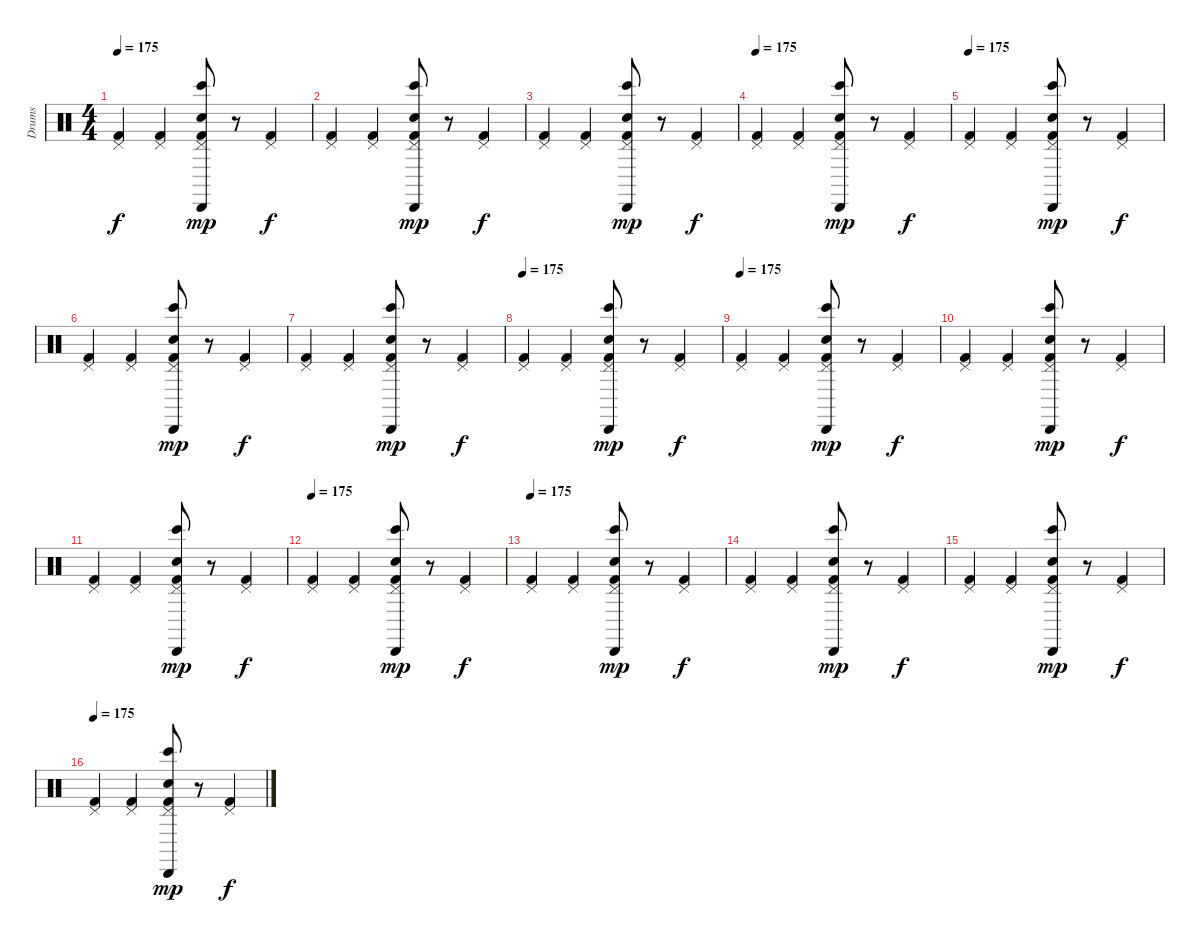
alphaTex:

\track ("Drums" "Drums") {instrument percussion}
\staff {score}
\articulation defaults
\ts (4 4)
\tempo 175
\clef neutral
\ks c
("Pedal Hi-Hat (hit)" "Kick (hit) 2").4{dy f} ("Pedal Hi-Hat (hit)" "Kick (hit) 2").4 ("Cabasa (hit)" "Bongo High (hit)" "Pedal Hi-Hat (hit)" "Snare (hit) 2" "Kick (hit) 2").8{dy mp} r.8{volume 0} ("Pedal Hi-Hat (hit)" "Kick (hit) 2").4{dy f volume 14} |
("Pedal Hi-Hat (hit)" "Kick (hit) 2").4 ("Pedal Hi-Hat (hit)" "Kick (hit) 2").4 ("Cabasa (hit)" "Bongo High (hit)" "Pedal Hi-Hat (hit)" "Snare (hit) 2" "Kick (hit) 2").8{dy mp} r.8{volume 0} ("Pedal Hi-Hat (hit)" "Kick (hit) 2").4{dy f volume 14} |
("Pedal Hi-Hat (hit)" "Kick (hit) 2").4 ("Pedal Hi-Hat (hit)" "Kick (hit) 2").4 ("Cabasa (hit)" "Bongo High (hit)" "Pedal Hi-Hat (hit)" "Snare (hit) 2" "Kick (hit) 2").8{dy mp} r.8{volume 0} ("Pedal Hi-Hat (hit)" "Kick (hit) 2").4{dy f volume 14} |
\tempo 175
("Pedal Hi-Hat (hit)" "Kick (hit) 2").4 ("Pedal Hi-Hat (hit)" "Kick (hit) 2").4 ("Cabasa (hit)" "Bongo High (hit)" "Pedal Hi-Hat (hit)" "Snare (hit) 2" "Kick (hit) 2").8{dy mp} r.8{volume 0} ("Pedal Hi-Hat (hit)" "Kick (hit) 2").4{dy f volume 14} |
\tempo 175
("Pedal Hi-Hat (hit)" "Kick (hit) 2").4 ("Pedal Hi-Hat (hit)" "Kick (hit) 2").4 ("Cabasa (hit)" "Bongo High (hit)" "Pedal Hi-Hat (hit)" "Snare (hit) 2" "Kick (hit) 2").8{dy mp} r.8{volume 0} ("Pedal Hi-Hat (hit)" "Kick (hit) 2").4{dy f volume 14} |
("Pedal Hi-Hat (hit)" "Kick (hit) 2").4 ("Pedal Hi-Hat (hit)" "Kick (hit) 2").4 ("Cabasa (hit)" "Bongo High (hit)" "Pedal Hi-Hat (hit)" "Snare (hit) 2" "Kick (hit) 2").8{dy mp} r.8{volume 0} ("Pedal Hi-Hat (hit)" "Kick (hit) 2").4{dy f volume 14} |
("Pedal Hi-Hat (hit)" "Kick (hit) 2").4 ("Pedal Hi-Hat (hit)" "Kick (hit) 2").4 ("Cabasa (hit)" "Bongo High (hit)" "Pedal Hi-Hat (hit)" "Snare (hit) 2" "Kick (hit) 2").8{dy mp} r.8{volume 0} ("Pedal Hi-Hat (hit)" "Kick (hit) 2").4{dy f volume 14} |
\tempo 175
("Pedal Hi-Hat (hit)" "Kick (hit) 2").4 ("Pedal Hi-Hat (hit)" "Kick (hit) 2").4 ("Cabasa (hit)" "Bongo High (hit)" "Pedal Hi-Hat (hit)" "Snare (hit) 2" "Kick (hit) 2").8{dy mp} r.8{volume 0} ("Pedal Hi-Hat (hit)" "Kick (hit) 2").4{dy f volume 14} |
\tempo 175
("Pedal Hi-Hat (hit)" "Kick (hit) 2").4 ("Pedal Hi-Hat (hit)" "Kick (hit) 2").4 ("Cabasa (hit)" "Bongo High (hit)" "Pedal Hi-Hat (hit)" "Snare (hit) 2" "Kick (hit) 2").8{dy mp} r.8{volume 0} ("Pedal Hi-Hat (hit)" "Kick (hit) 2").4{dy f volume 14} |
("Pedal Hi-Hat (hit)" "Kick (hit) 2").4 ("Pedal Hi-Hat (hit)" "Kick (hit) 2").4 ("Cabasa (hit)" "Bongo High (hit)" "Pedal Hi-Hat (hit)" "Snare (hit) 2" "Kick (hit) 2").8{dy mp} r.8{volume 0} ("Pedal Hi-Hat (hit)" "Kick (hit) 2").4{dy f volume 14} |
("Pedal Hi-Hat (hit)" "Kick (hit) 2").4 ("Pedal Hi-Hat (hit)" "Kick (hit) 2").4 ("Cabasa (hit)" "Bongo High (hit)" "Pedal Hi-Hat (hit)" "Snare (hit) 2" "Kick (hit) 2").8{dy mp} r.8{volume 0} ("Pedal Hi-Hat (hit)" "Kick (hit) 2").4{dy f volume 14} |
\tempo 175
("Pedal Hi-Hat (hit)" "Kick (hit) 2").4 ("Pedal Hi-Hat (hit)" "Kick (hit) 2").4 ("Cabasa (hit)" "Bongo High (hit)" "Pedal Hi-Hat (hit)" "Snare (hit) 2" "Kick (hit) 2").8{dy mp} r.8{volume 0} ("Pedal Hi-Hat (hit)" "Kick (hit) 2").4{dy f volume 14} |
\tempo 175
("Pedal Hi-Hat (hit)" "Kick (hit) 2").4 ("Pedal Hi-Hat (hit)" "Kick (hit) 2").4 ("Cabasa (hit)" "Bongo High (hit)" "Pedal Hi-Hat (hit)" "Snare (hit) 2" "Kick (hit) 2").8{dy mp} r.8{volume 0} ("Pedal Hi-Hat (hit)" "Kick (hit) 2").4{dy f volume 14} |
("Pedal Hi-Hat (hit)" "Kick (hit) 2").4 ("Pedal Hi-Hat (hit)" "Kick (hit) 2").4 ("Cabasa (hit)" "Bongo High (hit)" "Pedal Hi-Hat (hit)" "Snare (hit) 2" "Kick (hit) 2").8{dy mp} r.8{volume 0} ("Pedal Hi-Hat (hit)" "Kick (hit) 2").4{dy f volume 14} |
("Pedal Hi-Hat (hit)" "Kick (hit) 2").4 ("Pedal Hi-Hat (hit)" "Kick (hit) 2").4 ("Cabasa (hit)" "Bongo High (hit)" "Pedal Hi-Hat (hit)" "Snare (hit) 2" "Kick (hit) 2").8{dy mp} r.8{volume 0} ("Pedal Hi-Hat (hit)" "Kick (hit) 2").4{dy f volume 14} |
\tempo 175
("Pedal Hi-Hat (hit)" "Kick (hit) 2").4 ("Pedal Hi-Hat (hit)" "Kick (hit) 2").4 ("Cabasa (hit)" "Bongo High (hit)" "Pedal Hi-Hat (hit)" "Snare (hit) 2" "Kick (hit) 2").8{dy mp} r.8{volume 0} ("Pedal Hi-Hat (hit)" "Kick (hit) 2").4{dy f volume 14}
